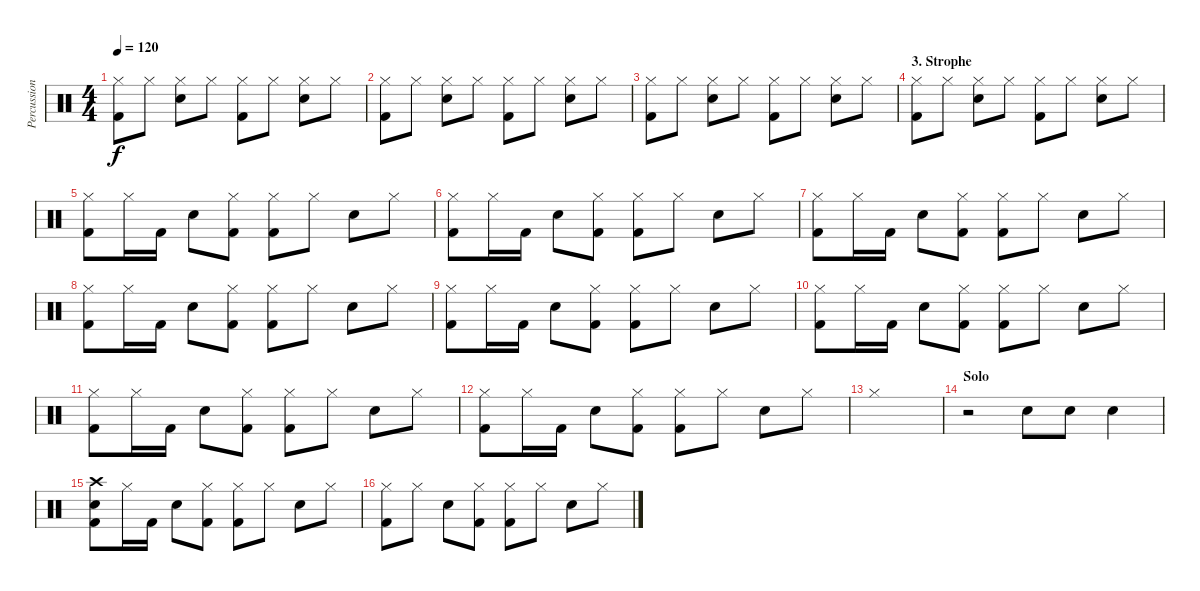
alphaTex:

\track ("Percussion (Bela)" "Percussion") {instrument percussion}
\staff {score}
\articulation defaults
\ts (4 4)
\tempo 120
\clef neutral
\ks c
("Hi-Hat (closed)" "Kick (hit) 2").8{dy f} "Hi-Hat (closed)".8 ("Hi-Hat (closed)" "Electric Snare (hit)").8 "Hi-Hat (closed)".8 ("Hi-Hat (closed)" "Kick (hit) 2").8 "Hi-Hat (closed)".8 ("Hi-Hat (closed)" "Electric Snare (hit)").8 "Hi-Hat (closed)".8 |
("Hi-Hat (closed)" "Kick (hit) 2").8 "Hi-Hat (closed)".8 ("Hi-Hat (closed)" "Electric Snare (hit)").8 "Hi-Hat (closed)".8 ("Hi-Hat (closed)" "Kick (hit) 2").8 "Hi-Hat (closed)".8 ("Hi-Hat (closed)" "Electric Snare (hit)").8 "Hi-Hat (closed)".8 |
("Hi-Hat (closed)" "Kick (hit) 2").8 "Hi-Hat (closed)".8 ("Hi-Hat (closed)" "Electric Snare (hit)").8 "Hi-Hat (closed)".8 ("Hi-Hat (closed)" "Kick (hit) 2").8 "Hi-Hat (closed)".8 ("Hi-Hat (closed)" "Electric Snare (hit)").8 "Hi-Hat (closed)".8 |
\section ("" "3. Strophe")
("Hi-Hat (closed)" "Kick (hit) 2").8 "Hi-Hat (closed)".8 ("Hi-Hat (closed)" "Electric Snare (hit)").8 "Hi-Hat (closed)".8 ("Hi-Hat (closed)" "Kick (hit) 2").8 "Hi-Hat (closed)".8 ("Hi-Hat (closed)" "Electric Snare (hit)").8 "Hi-Hat (closed)".8 |
("Hi-Hat (closed)" "Kick (hit) 2").8 "Hi-Hat (closed)".16 "Kick (hit) 2".16 "Electric Snare (hit)".8 ("Hi-Hat (closed)" "Kick (hit) 2").8 ("Hi-Hat (closed)" "Kick (hit) 2").8 "Hi-Hat (closed)".8 "Electric Snare (hit)".8 "Hi-Hat (closed)".8 |
("Hi-Hat (closed)" "Kick (hit) 2").8 "Hi-Hat (closed)".16 "Kick (hit) 2".16 "Electric Snare (hit)".8 ("Hi-Hat (closed)" "Kick (hit) 2").8 ("Hi-Hat (closed)" "Kick (hit) 2").8 "Hi-Hat (closed)".8 "Electric Snare (hit)".8 "Hi-Hat (closed)".8 |
("Hi-Hat (closed)" "Kick (hit) 2").8 "Hi-Hat (closed)".16 "Kick (hit) 2".16 "Electric Snare (hit)".8 ("Hi-Hat (closed)" "Kick (hit) 2").8 ("Hi-Hat (closed)" "Kick (hit) 2").8 "Hi-Hat (closed)".8 "Electric Snare (hit)".8 "Hi-Hat (closed)".8 |
("Hi-Hat (closed)" "Kick (hit) 2").8 "Hi-Hat (closed)".16 "Kick (hit) 2".16 "Electric Snare (hit)".8 ("Hi-Hat (closed)" "Kick (hit) 2").8 ("Hi-Hat (closed)" "Kick (hit) 2").8 "Hi-Hat (closed)".8 "Electric Snare (hit)".8 "Hi-Hat (closed)".8 |
("Hi-Hat (closed)" "Kick (hit) 2").8 "Hi-Hat (closed)".16 "Kick (hit) 2".16 "Electric Snare (hit)".8 ("Hi-Hat (closed)" "Kick (hit) 2").8 ("Hi-Hat (closed)" "Kick (hit) 2").8 "Hi-Hat (closed)".8 "Electric Snare (hit)".8 "Hi-Hat (closed)".8 |
("Hi-Hat (closed)" "Kick (hit) 2").8 "Hi-Hat (closed)".16 "Kick (hit) 2".16 "Electric Snare (hit)".8 ("Hi-Hat (closed)" "Kick (hit) 2").8 ("Hi-Hat (closed)" "Kick (hit) 2").8 "Hi-Hat (closed)".8 "Electric Snare (hit)".8 "Hi-Hat (closed)".8 |
("Hi-Hat (closed)" "Kick (hit) 2").8 "Hi-Hat (closed)".16 "Kick (hit) 2".16 "Electric Snare (hit)".8 ("Hi-Hat (closed)" "Kick (hit) 2").8 ("Hi-Hat (closed)" "Kick (hit) 2").8 "Hi-Hat (closed)".8 "Electric Snare (hit)".8 "Hi-Hat (closed)".8 |
("Hi-Hat (closed)" "Kick (hit) 2").8 "Hi-Hat (closed)".16 "Kick (hit) 2".16 "Electric Snare (hit)".8 ("Hi-Hat (closed)" "Kick (hit) 2").8 ("Hi-Hat (closed)" "Kick (hit) 2").8 "Hi-Hat (closed)".8 "Electric Snare (hit)".8 "Hi-Hat (closed)".8 |
"Hi-Hat (closed)".1 |
\section ("" "Solo")
r.2 "Snare (hit) 2".8 "Snare (hit) 2".8 "Snare (hit) 2".4 |
("Crash high (hit)" "Electric Snare (hit)" "Kick (hit) 2").8 "Hi-Hat (closed)".16 "Kick (hit) 2".16 "Electric Snare (hit)".8 ("Hi-Hat (closed)" "Kick (hit) 2").8 ("Hi-Hat (closed)" "Kick (hit) 2").8 "Hi-Hat (closed)".8 "Electric Snare (hit)".8 "Hi-Hat (closed)".8 |
("Hi-Hat (closed)" "Kick (hit) 2").8 "Hi-Hat (closed)".8 "Electric Snare (hit)".8 ("Hi-Hat (closed)" "Kick (hit) 2").8 ("Hi-Hat (closed)" "Kick (hit) 2").8 "Hi-Hat (closed)".8 "Electric Snare (hit)".8 "Hi-Hat (closed)".8
